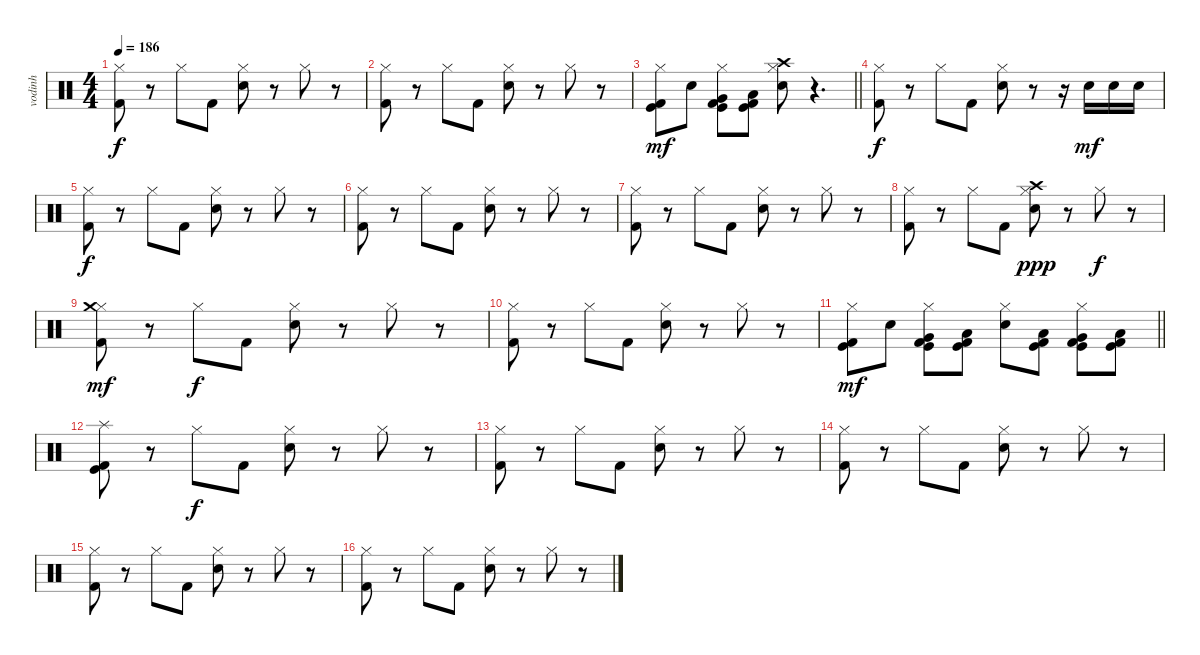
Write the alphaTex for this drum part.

\track ("vodinh" "vodinh") {instrument percussion}
\staff {score}
\articulation defaults
\ts (4 4)
\tempo 186
\clef neutral
\ks c
("Hi-Hat (closed)" "Kick (hit) 2").8{dy f} r.8 "Hi-Hat (closed)".8 "Kick (hit) 2".8 ("Hi-Hat (closed)" "Snare (hit) 2").8 r.8 "Hi-Hat (closed)".8 r.8 |
("Hi-Hat (closed)" "Kick (hit) 2").8 r.8 "Hi-Hat (closed)".8 "Kick (hit) 2".8 ("Hi-Hat (closed)" "Snare (hit) 2").8 r.8 "Hi-Hat (closed)".8 r.8 |
\barLineRight lightlight
("Hi-Hat (closed)" "Kick (hit)" "Kick (hit) 2").8{dy mf} "Electric Snare (hit)".8 ("Hi-Hat (closed)" "Very Low Tom (hit)" "Kick (hit)" "Kick (hit) 2").8 ("Low Tom (hit)" "Kick (hit)" "Kick (hit) 2").8 ("Crash high (hit)" "Hi-Hat (closed)" "Electric Snare (hit)").8 r.4{d} |
("Hi-Hat (closed)" "Kick (hit) 2").8{dy f} r.8 "Hi-Hat (closed)".8 "Kick (hit) 2".8 ("Hi-Hat (closed)" "Snare (hit) 2").8 r.8 r.16 "Snare (hit) 2".16{dy mf} "Snare (hit) 2".16 "Snare (hit) 2".16 |
("Hi-Hat (closed)" "Kick (hit) 2").8{dy f} r.8 "Hi-Hat (closed)".8 "Kick (hit) 2".8 ("Hi-Hat (closed)" "Snare (hit) 2").8 r.8 "Hi-Hat (closed)".8 r.8 |
("Hi-Hat (closed)" "Kick (hit) 2").8 r.8 "Hi-Hat (closed)".8 "Kick (hit) 2".8 ("Hi-Hat (closed)" "Snare (hit) 2").8 r.8 "Hi-Hat (closed)".8 r.8 |
("Hi-Hat (closed)" "Kick (hit) 2").8 r.8 "Hi-Hat (closed)".8 "Kick (hit) 2".8 ("Hi-Hat (closed)" "Snare (hit) 2").8 r.8 "Hi-Hat (closed)".8 r.8 |
("Hi-Hat (closed)" "Kick (hit) 2").8 r.8 "Hi-Hat (closed)".8 "Kick (hit) 2".8 ("Hi-Hat (closed)" "Crash high (hit)" "Snare (hit) 2").8{dy ppp} r.8 "Hi-Hat (closed)".8{dy f} r.8 |
("Hi-Hat (closed)" "Crash medium (hit)" "Kick (hit) 2").8{dy mf} r.8 "Hi-Hat (closed)".8{dy f} "Kick (hit) 2".8 ("Hi-Hat (closed)" "Snare (hit) 2").8 r.8 "Hi-Hat (closed)".8 r.8 |
("Hi-Hat (closed)" "Kick (hit) 2").8 r.8 "Hi-Hat (closed)".8 "Kick (hit) 2".8 ("Hi-Hat (closed)" "Snare (hit) 2").8 r.8 "Hi-Hat (closed)".8 r.8 |
\barLineRight lightlight
("Hi-Hat (closed)" "Kick (hit)" "Kick (hit) 2").8{dy mf} "Electric Snare (hit)".8 ("Hi-Hat (closed)" "Very Low Tom (hit)" "Kick (hit)" "Kick (hit) 2").8 ("Low Tom (hit)" "Kick (hit)" "Kick (hit) 2").8 ("Hi-Hat (closed)" "Electric Snare (hit)").8 ("Low Tom (hit)" "Kick (hit)" "Kick (hit) 2").8 ("Hi-Hat (closed)" "Very Low Tom (hit)" "Kick (hit)" "Kick (hit) 2").8 ("Low Floor Tom (hit)" "Kick (hit)" "Kick (hit) 2").8 |
("Splash (hit)" "Kick (hit)" "Kick (hit) 2").8 r.8 "Hi-Hat (closed)".8{dy f} "Kick (hit) 2".8 ("Hi-Hat (closed)" "Snare (hit) 2").8 r.8 "Hi-Hat (closed)".8 r.8 |
("Hi-Hat (closed)" "Kick (hit) 2").8 r.8 "Hi-Hat (closed)".8 "Kick (hit) 2".8 ("Hi-Hat (closed)" "Snare (hit) 2").8 r.8 "Hi-Hat (closed)".8 r.8 |
("Hi-Hat (closed)" "Kick (hit) 2").8 r.8 "Hi-Hat (closed)".8 "Kick (hit) 2".8 ("Hi-Hat (closed)" "Snare (hit) 2").8 r.8 "Hi-Hat (closed)".8 r.8 |
("Hi-Hat (closed)" "Kick (hit) 2").8 r.8 "Hi-Hat (closed)".8 "Kick (hit) 2".8 ("Hi-Hat (closed)" "Snare (hit) 2").8 r.8 "Hi-Hat (closed)".8 r.8 |
("Hi-Hat (closed)" "Kick (hit) 2").8 r.8 "Hi-Hat (closed)".8 "Kick (hit) 2".8 ("Hi-Hat (closed)" "Snare (hit) 2").8 r.8 "Hi-Hat (closed)".8 r.8
